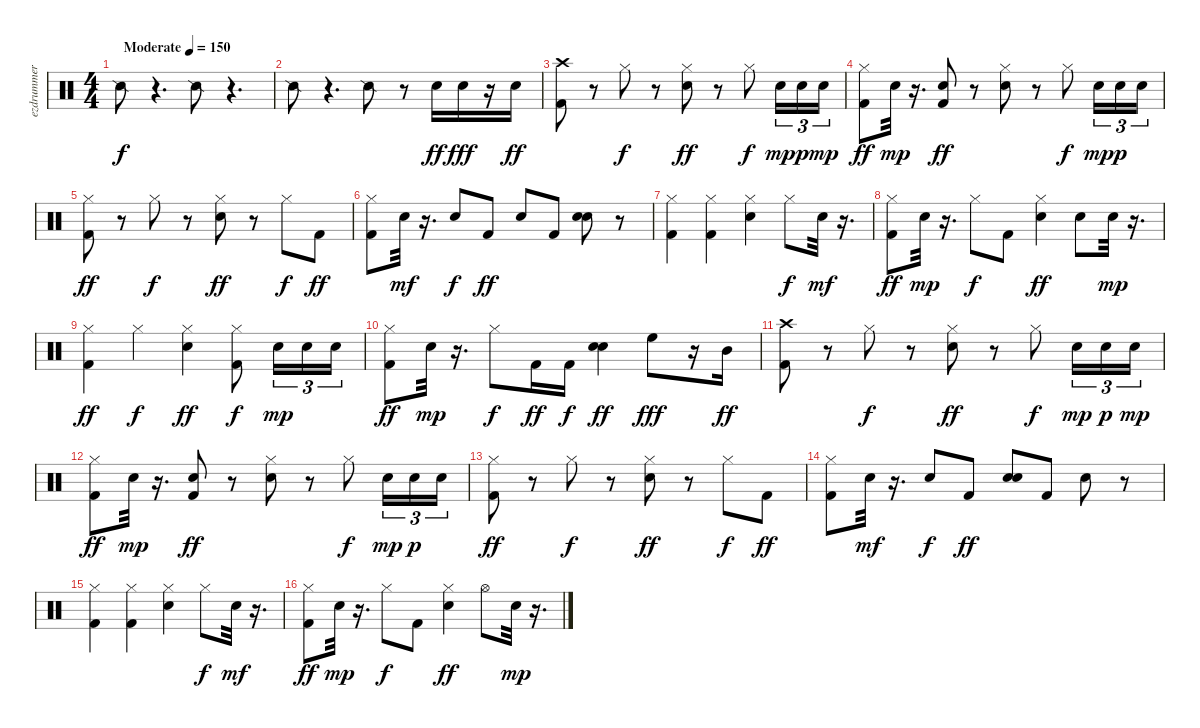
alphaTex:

\track ("ezdrummer 03" "ezdrummer ") {instrument percussion}
\staff {score}
\articulation defaults
\ts (4 4)
\tempo (150 "Moderate")
\clef neutral
\ks c "Snare (side stick) 2".8{dy f}
r.4{d} "Snare (side stick) 2".8 r.4{d} |
"Snare (side stick) 2".8 r.4{d} "Snare (side stick) 2".8 r.8 "Snare (hit) 2".16{dy ff} "Snare (hit) 2".16{dy fff} r.16 "Snare (hit) 2".16{dy ff} |
("Kick (hit) 2" "Crash high (hit)").8 r.8 "Hi-Hat (closed)".8{dy f} r.8 ("Snare (hit) 2" "Hi-Hat (closed)").8{dy ff} r.8 "Hi-Hat (closed)".8{dy f} "Snare (hit) 2".16{tu (3 2) dy mp} "Snare (hit) 2".16{tu (3 2) dy p} "Snare (hit) 2".16{tu (3 2) dy mp} |
("Kick (hit) 2" "Hi-Hat (closed)").8{dy ff} "Snare (hit) 2".32{dy mp} r.16{d} ("Kick (hit) 2" "Snare (hit)").8{dy ff} r.8 ("Snare (hit) 2" "Hi-Hat (closed)").8 r.8 "Hi-Hat (closed)".8{dy f} "Snare (hit) 2".16{tu (3 2) dy mp} "Snare (hit) 2".16{tu (3 2) dy p} "Snare (hit) 2".16{tu (3 2)} |
("Kick (hit) 2" "Hi-Hat (closed)").8{dy ff} r.8 "Hi-Hat (closed)".8{dy f} r.8 ("Snare (hit) 2" "Hi-Hat (closed)").8{dy ff} r.8 "Hi-Hat (closed)".8{dy f} "Kick (hit) 2".8{dy ff} |
("Kick (hit) 2" "Hi-Hat (closed)").8 "Snare (hit) 2".32{dy mf} r.16{d} "Snare (hit)".8{dy f} "Kick (hit) 2".8{dy ff} "Snare (hit)".8 "Kick (hit) 2".8 ("Snare (hit) 2" "Snare (hit)").8 r.8 |
("Kick (hit) 2" "Hi-Hat (closed)").4 ("Kick (hit) 2" "Hi-Hat (closed)").4 ("Snare (hit) 2" "Hi-Hat (closed)").4 "Hi-Hat (closed)".8{dy f} "Snare (hit) 2".32{dy mf} r.16{d} |
("Kick (hit) 2" "Hi-Hat (closed)").8{dy ff} "Snare (hit) 2".32{dy mp} r.16{d} "Hi-Hat (closed)".8{dy f} "Kick (hit) 2".8 ("Snare (hit) 2" "Hi-Hat (closed)").4{dy ff} "Snare (hit)".8 "Snare (hit) 2".32{dy mp} r.16{d} |
("Kick (hit) 2" "Hi-Hat (closed)").4{dy ff} "Hi-Hat (closed)".4{dy f} ("Snare (hit) 2" "Hi-Hat (closed)").4{dy ff} ("Kick (hit) 2" "Hi-Hat (closed)").8{dy f} "Snare (hit) 2".16{tu (3 2) dy mp} "Snare (hit) 2".16{tu (3 2)} "Snare (hit) 2".16{tu (3 2)} |
("Kick (hit) 2" "Hi-Hat (closed)").8{dy ff} "Snare (hit) 2".32{dy mp} r.16{d} "Hi-Hat (closed)".8{dy f} "Kick (hit) 2".16{dy ff} "Kick (hit) 2".16{dy f} ("Snare (hit) 2" "Snare (hit)").4{dy ff} "High Floor Tom (hit)".8{dy fff} r.16 "Mid Tom (hit)".16{dy ff} |
("Kick (hit) 2" "Crash high (hit)").8 r.8 "Hi-Hat (closed)".8{dy f} r.8 ("Snare (hit) 2" "Hi-Hat (closed)").8{dy ff} r.8 "Hi-Hat (closed)".8{dy f} "Snare (hit) 2".16{tu (3 2) dy mp} "Snare (hit) 2".16{tu (3 2) dy p} "Snare (hit) 2".16{tu (3 2) dy mp} |
("Kick (hit) 2" "Hi-Hat (closed)").8{dy ff} "Snare (hit) 2".32{dy mp} r.16{d} ("Snare (hit)" "Kick (hit) 2").8{dy ff} r.8 ("Snare (hit) 2" "Hi-Hat (closed)").8 r.8 "Hi-Hat (closed)".8{dy f} "Snare (hit) 2".16{tu (3 2) dy mp} "Snare (hit) 2".16{tu (3 2) dy p} "Snare (hit) 2".16{tu (3 2)} |
("Kick (hit) 2" "Hi-Hat (closed)").8{dy ff} r.8 "Hi-Hat (closed)".8{dy f} r.8 ("Snare (hit) 2" "Hi-Hat (closed)").8{dy ff} r.8 "Hi-Hat (closed)".8{dy f} "Kick (hit) 2".8{dy ff} |
("Kick (hit) 2" "Hi-Hat (closed)").8 "Snare (hit) 2".32{dy mf} r.16{d} "Snare (hit)".8{dy f} "Kick (hit) 2".8{dy ff} ("Snare (hit)" "Snare (hit) 2").8 "Kick (hit) 2".8 "Snare (hit)".8 r.8 |
("Kick (hit) 2" "Hi-Hat (closed)").4 ("Kick (hit) 2" "Hi-Hat (closed)").4 ("Snare (hit) 2" "Hi-Hat (closed)").4 "Hi-Hat (closed)".8{dy f} "Snare (hit) 2".32{dy mf} r.16{d} |
("Kick (hit) 2" "Hi-Hat (closed)").8{dy ff} "Snare (hit) 2".32{dy mp} r.16{d} "Hi-Hat (closed)".8{dy f} "Kick (hit) 2".8 ("Snare (hit) 2" "Hi-Hat (closed)").4{dy ff} "Hi-Hat (open)".8 "Snare (hit) 2".32{dy mp} r.16{d}
